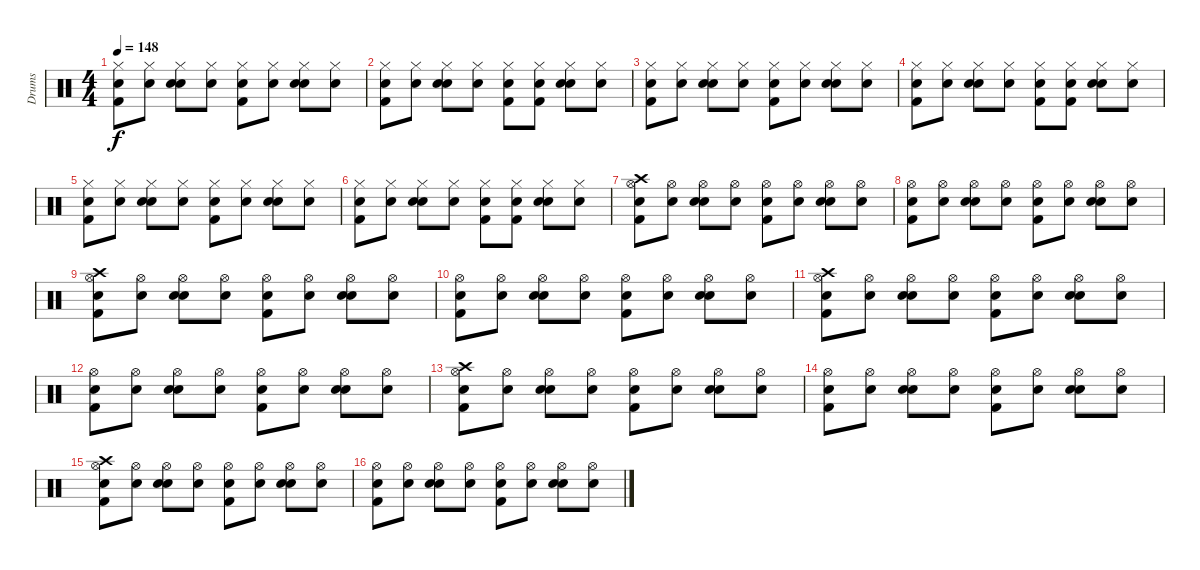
\track ("Drums" "Drums") {instrument percussion}
\staff {score}
\articulation defaults
\ts (4 4)
\tempo 148
\clef neutral
\ks c
("Snare (hit)" "Kick (hit) 2" "Hi-Hat (closed)").8{dy f} ("Snare (hit)" "Hi-Hat (closed)").8 ("Snare (hit)" "Snare (hit) 2" "Hi-Hat (closed)").8 ("Snare (hit)" "Hi-Hat (closed)").8 ("Snare (hit)" "Kick (hit) 2" "Hi-Hat (closed)").8 ("Snare (hit)" "Hi-Hat (closed)").8 ("Snare (hit)" "Snare (hit) 2" "Hi-Hat (closed)").8 ("Snare (hit)" "Hi-Hat (closed)").8 |
("Snare (hit)" "Kick (hit) 2" "Hi-Hat (closed)").8 ("Snare (hit)" "Hi-Hat (closed)").8 ("Snare (hit)" "Snare (hit) 2" "Hi-Hat (closed)").8 ("Snare (hit)" "Hi-Hat (closed)").8 ("Snare (hit)" "Kick (hit) 2" "Hi-Hat (closed)").8 ("Snare (hit)" "Kick (hit) 2" "Hi-Hat (closed)").8 ("Snare (hit)" "Snare (hit) 2" "Hi-Hat (closed)").8 ("Snare (hit)" "Hi-Hat (closed)").8 |
("Snare (hit)" "Kick (hit) 2" "Hi-Hat (closed)").8 ("Snare (hit)" "Hi-Hat (closed)").8 ("Snare (hit)" "Snare (hit) 2" "Hi-Hat (closed)").8 ("Snare (hit)" "Hi-Hat (closed)").8 ("Snare (hit)" "Kick (hit) 2" "Hi-Hat (closed)").8 ("Snare (hit)" "Hi-Hat (closed)").8 ("Snare (hit)" "Snare (hit) 2" "Hi-Hat (closed)").8 ("Snare (hit)" "Hi-Hat (closed)").8 |
("Snare (hit)" "Kick (hit) 2" "Hi-Hat (closed)").8 ("Snare (hit)" "Hi-Hat (closed)").8 ("Snare (hit)" "Snare (hit) 2" "Hi-Hat (closed)").8 ("Snare (hit)" "Hi-Hat (closed)").8 ("Snare (hit)" "Kick (hit) 2" "Hi-Hat (closed)").8 ("Snare (hit)" "Kick (hit) 2" "Hi-Hat (closed)").8 ("Snare (hit)" "Snare (hit) 2" "Hi-Hat (closed)").8 ("Snare (hit)" "Hi-Hat (closed)").8 |
("Snare (hit)" "Kick (hit) 2" "Hi-Hat (closed)").8 ("Snare (hit)" "Hi-Hat (closed)").8 ("Snare (hit)" "Snare (hit) 2" "Hi-Hat (closed)").8 ("Snare (hit)" "Hi-Hat (closed)").8 ("Snare (hit)" "Kick (hit) 2" "Hi-Hat (closed)").8 ("Snare (hit)" "Hi-Hat (closed)").8 ("Snare (hit)" "Snare (hit) 2" "Hi-Hat (closed)").8 ("Snare (hit)" "Hi-Hat (closed)").8 |
("Snare (hit)" "Kick (hit) 2" "Hi-Hat (closed)").8 ("Snare (hit)" "Hi-Hat (closed)").8 ("Snare (hit)" "Snare (hit) 2" "Hi-Hat (closed)").8 ("Snare (hit)" "Hi-Hat (closed)").8 ("Snare (hit)" "Kick (hit) 2" "Hi-Hat (closed)").8 ("Snare (hit)" "Kick (hit) 2" "Hi-Hat (closed)").8 ("Snare (hit)" "Snare (hit) 2" "Hi-Hat (closed)").8 ("Snare (hit)" "Hi-Hat (closed)").8 |
("Snare (hit)" "Kick (hit) 2" "Hi-Hat (open)" "Crash high (hit)").8 ("Snare (hit)" "Hi-Hat (open)").8 ("Snare (hit)" "Snare (hit) 2" "Hi-Hat (open)").8 ("Snare (hit)" "Hi-Hat (open)").8 ("Snare (hit)" "Kick (hit) 2" "Hi-Hat (open)").8 ("Snare (hit)" "Hi-Hat (open)").8 ("Snare (hit)" "Snare (hit) 2" "Hi-Hat (open)").8 ("Snare (hit)" "Hi-Hat (open)").8 |
("Snare (hit)" "Kick (hit) 2" "Hi-Hat (open)").8 ("Snare (hit)" "Hi-Hat (open)").8 ("Snare (hit)" "Snare (hit) 2" "Hi-Hat (open)").8 ("Snare (hit)" "Hi-Hat (open)").8 ("Snare (hit)" "Kick (hit) 2" "Hi-Hat (open)").8 ("Snare (hit)" "Hi-Hat (open)").8 ("Snare (hit)" "Snare (hit) 2" "Hi-Hat (open)").8 ("Snare (hit)" "Hi-Hat (open)").8 |
("Snare (hit)" "Kick (hit) 2" "Hi-Hat (open)" "Crash high (hit)").8 ("Snare (hit)" "Hi-Hat (open)").8 ("Snare (hit)" "Snare (hit) 2" "Hi-Hat (open)").8 ("Snare (hit)" "Hi-Hat (open)").8 ("Snare (hit)" "Kick (hit) 2" "Hi-Hat (open)").8 ("Snare (hit)" "Hi-Hat (open)").8 ("Snare (hit)" "Snare (hit) 2" "Hi-Hat (open)").8 ("Snare (hit)" "Hi-Hat (open)").8 |
("Snare (hit)" "Kick (hit) 2" "Hi-Hat (open)").8 ("Snare (hit)" "Hi-Hat (open)").8 ("Snare (hit)" "Snare (hit) 2" "Hi-Hat (open)").8 ("Snare (hit)" "Hi-Hat (open)").8 ("Snare (hit)" "Kick (hit) 2" "Hi-Hat (open)").8 ("Snare (hit)" "Hi-Hat (open)").8 ("Snare (hit)" "Snare (hit) 2" "Hi-Hat (open)").8 ("Snare (hit)" "Hi-Hat (open)").8 |
("Snare (hit)" "Kick (hit) 2" "Hi-Hat (open)" "Crash high (hit)").8 ("Snare (hit)" "Hi-Hat (open)").8 ("Snare (hit)" "Snare (hit) 2" "Hi-Hat (open)").8 ("Snare (hit)" "Hi-Hat (open)").8 ("Snare (hit)" "Kick (hit) 2" "Hi-Hat (open)").8 ("Snare (hit)" "Hi-Hat (open)").8 ("Snare (hit)" "Snare (hit) 2" "Hi-Hat (open)").8 ("Snare (hit)" "Hi-Hat (open)").8 |
("Snare (hit)" "Kick (hit) 2" "Hi-Hat (open)").8 ("Snare (hit)" "Hi-Hat (open)").8 ("Snare (hit)" "Snare (hit) 2" "Hi-Hat (open)").8 ("Snare (hit)" "Hi-Hat (open)").8 ("Snare (hit)" "Kick (hit) 2" "Hi-Hat (open)").8 ("Snare (hit)" "Hi-Hat (open)").8 ("Snare (hit)" "Snare (hit) 2" "Hi-Hat (open)").8 ("Snare (hit)" "Hi-Hat (open)").8 |
("Snare (hit)" "Kick (hit) 2" "Hi-Hat (open)" "Crash high (hit)").8 ("Snare (hit)" "Hi-Hat (open)").8 ("Snare (hit)" "Snare (hit) 2" "Hi-Hat (open)").8 ("Snare (hit)" "Hi-Hat (open)").8 ("Snare (hit)" "Kick (hit) 2" "Hi-Hat (open)").8 ("Snare (hit)" "Hi-Hat (open)").8 ("Snare (hit)" "Snare (hit) 2" "Hi-Hat (open)").8 ("Snare (hit)" "Hi-Hat (open)").8 |
("Snare (hit)" "Kick (hit) 2" "Hi-Hat (open)").8 ("Snare (hit)" "Hi-Hat (open)").8 ("Snare (hit)" "Snare (hit) 2" "Hi-Hat (open)").8 ("Snare (hit)" "Hi-Hat (open)").8 ("Snare (hit)" "Kick (hit) 2" "Hi-Hat (open)").8 ("Snare (hit)" "Hi-Hat (open)").8 ("Snare (hit)" "Snare (hit) 2" "Hi-Hat (open)").8 ("Snare (hit)" "Hi-Hat (open)").8 |
("Snare (hit)" "Kick (hit) 2" "Hi-Hat (open)" "Crash high (hit)").8 ("Snare (hit)" "Hi-Hat (open)").8 ("Snare (hit)" "Snare (hit) 2" "Hi-Hat (open)").8 ("Snare (hit)" "Hi-Hat (open)").8 ("Snare (hit)" "Kick (hit) 2" "Hi-Hat (open)").8 ("Snare (hit)" "Hi-Hat (open)").8 ("Snare (hit)" "Snare (hit) 2" "Hi-Hat (open)").8 ("Snare (hit)" "Hi-Hat (open)").8 |
("Snare (hit)" "Kick (hit) 2" "Hi-Hat (open)").8 ("Snare (hit)" "Hi-Hat (open)").8 ("Snare (hit)" "Snare (hit) 2" "Hi-Hat (open)").8 ("Snare (hit)" "Hi-Hat (open)").8 ("Snare (hit)" "Kick (hit) 2" "Hi-Hat (open)").8 ("Snare (hit)" "Hi-Hat (open)").8 ("Snare (hit)" "Snare (hit) 2" "Hi-Hat (open)").8 ("Snare (hit)" "Hi-Hat (open)").8
